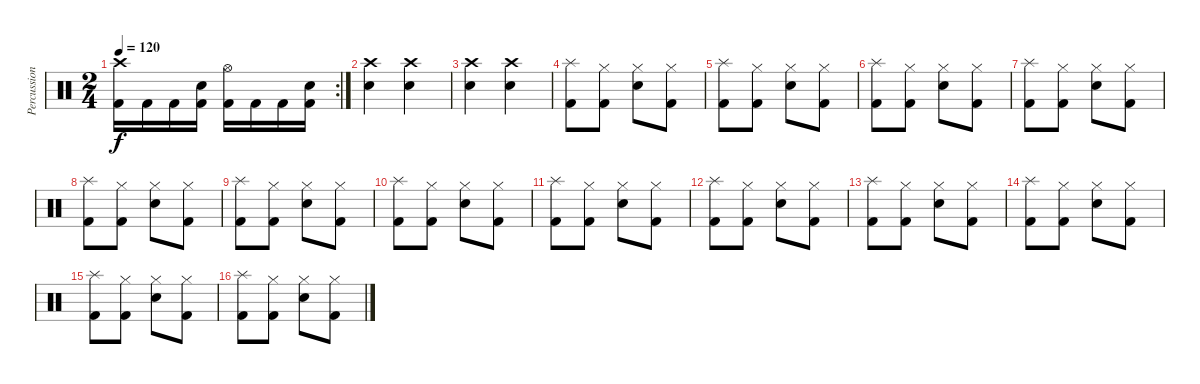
\track ("Percussion" "Percussion") {instrument percussion}
\staff {score}
\articulation defaults
\rc 2
\ts (2 4)
\tempo 120
\clef neutral
\ks c
("Crash high (hit)" "Kick (hit) 2").16{dy f} "Kick (hit) 2".16 "Kick (hit) 2".16 ("Electric Snare (hit)" "Kick (hit) 2").16 ("Hi-Hat (open)" "Kick (hit) 2").16 "Kick (hit) 2".16 "Kick (hit) 2".16 ("Electric Snare (hit)" "Kick (hit) 2").16 |
("Crash high (hit)" "Electric Snare (hit)").4 ("Crash high (hit)" "Electric Snare (hit)").4 |
("Crash high (hit)" "Electric Snare (hit)").4 ("Crash high (hit)" "Electric Snare (hit)").4 |
("Splash (hit)" "Kick (hit) 2").8 ("Hi-Hat (closed)" "Kick (hit) 2").8 ("Hi-Hat (closed)" "Electric Snare (hit)").8 ("Hi-Hat (closed)" "Kick (hit) 2").8 |
("Splash (hit)" "Kick (hit) 2").8 ("Hi-Hat (closed)" "Kick (hit) 2").8 ("Hi-Hat (closed)" "Electric Snare (hit)").8 ("Hi-Hat (closed)" "Kick (hit) 2").8 |
("Splash (hit)" "Kick (hit) 2").8 ("Hi-Hat (closed)" "Kick (hit) 2").8 ("Hi-Hat (closed)" "Electric Snare (hit)").8 ("Hi-Hat (closed)" "Kick (hit) 2").8 |
("Splash (hit)" "Kick (hit) 2").8 ("Hi-Hat (closed)" "Kick (hit) 2").8 ("Hi-Hat (closed)" "Electric Snare (hit)").8 ("Hi-Hat (closed)" "Kick (hit) 2").8 |
("Splash (hit)" "Kick (hit) 2").8 ("Hi-Hat (closed)" "Kick (hit) 2").8 ("Hi-Hat (closed)" "Electric Snare (hit)").8 ("Hi-Hat (closed)" "Kick (hit) 2").8 |
("Splash (hit)" "Kick (hit) 2").8 ("Hi-Hat (closed)" "Kick (hit) 2").8 ("Hi-Hat (closed)" "Electric Snare (hit)").8 ("Hi-Hat (closed)" "Kick (hit) 2").8 |
("Splash (hit)" "Kick (hit) 2").8 ("Hi-Hat (closed)" "Kick (hit) 2").8 ("Hi-Hat (closed)" "Electric Snare (hit)").8 ("Hi-Hat (closed)" "Kick (hit) 2").8 |
("Splash (hit)" "Kick (hit) 2").8 ("Hi-Hat (closed)" "Kick (hit) 2").8 ("Hi-Hat (closed)" "Electric Snare (hit)").8 ("Hi-Hat (closed)" "Kick (hit) 2").8 |
("Splash (hit)" "Kick (hit) 2").8 ("Hi-Hat (closed)" "Kick (hit) 2").8 ("Hi-Hat (closed)" "Electric Snare (hit)").8 ("Hi-Hat (closed)" "Kick (hit) 2").8 |
("Splash (hit)" "Kick (hit) 2").8 ("Hi-Hat (closed)" "Kick (hit) 2").8 ("Hi-Hat (closed)" "Electric Snare (hit)").8 ("Hi-Hat (closed)" "Kick (hit) 2").8 |
("Splash (hit)" "Kick (hit) 2").8 ("Hi-Hat (closed)" "Kick (hit) 2").8 ("Hi-Hat (closed)" "Electric Snare (hit)").8 ("Hi-Hat (closed)" "Kick (hit) 2").8 |
("Splash (hit)" "Kick (hit) 2").8 ("Hi-Hat (closed)" "Kick (hit) 2").8 ("Hi-Hat (closed)" "Electric Snare (hit)").8 ("Hi-Hat (closed)" "Kick (hit) 2").8 |
("Splash (hit)" "Kick (hit) 2").8 ("Hi-Hat (closed)" "Kick (hit) 2").8 ("Hi-Hat (closed)" "Electric Snare (hit)").8 ("Hi-Hat (closed)" "Kick (hit) 2").8
